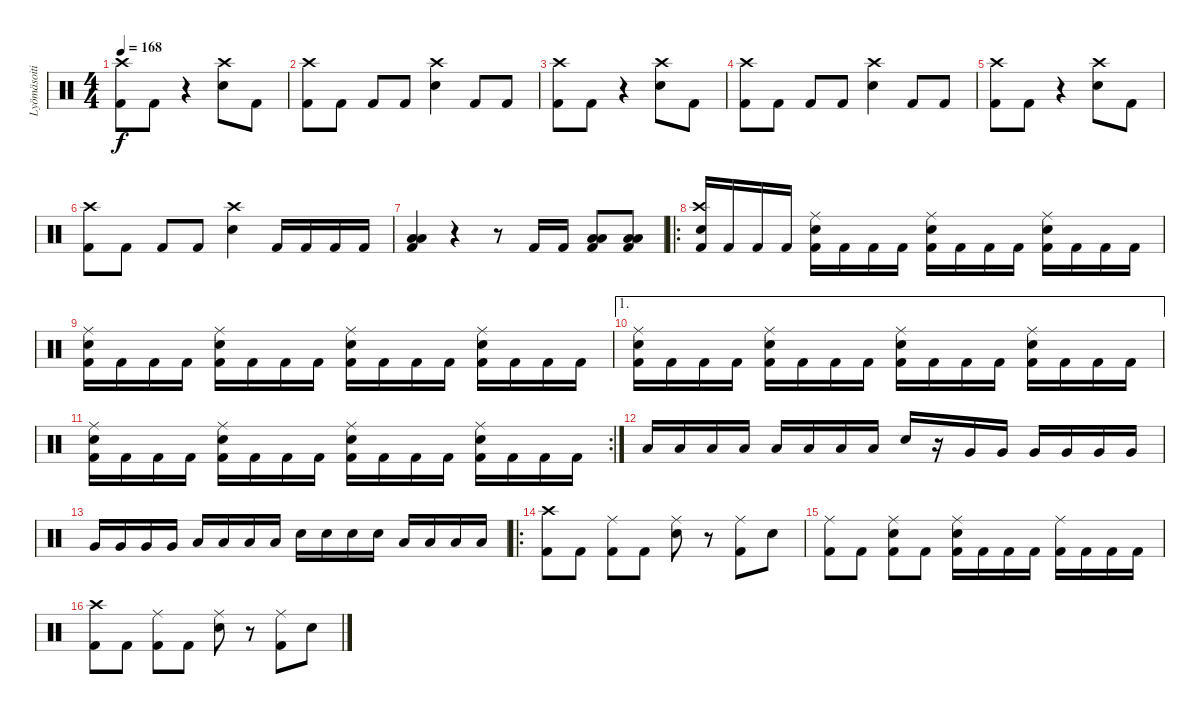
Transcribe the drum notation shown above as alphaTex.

\track ("Lyömäsoitin" "Lyömäsoiti") {instrument percussion}
\staff {score}
\articulation defaults
\ts (4 4)
\tempo 168
\clef neutral
\ks c
("Kick (hit) 2" "Crash high (hit)").8{dy f} "Kick (hit) 2".8 r.4 ("Electric Snare (hit)" "Crash high (hit)").8 "Kick (hit) 2".8 |
("Kick (hit) 2" "Crash high (hit)").8 "Kick (hit) 2".8 "Kick (hit) 2".8 "Kick (hit) 2".8 ("Electric Snare (hit)" "Crash high (hit)").4 "Kick (hit) 2".8 "Kick (hit) 2".8 |
("Kick (hit) 2" "Crash high (hit)").8 "Kick (hit) 2".8 r.4 ("Electric Snare (hit)" "Crash high (hit)").8 "Kick (hit) 2".8 |
("Kick (hit) 2" "Crash high (hit)").8 "Kick (hit) 2".8 "Kick (hit) 2".8 "Kick (hit) 2".8 ("Electric Snare (hit)" "Crash high (hit)").4 "Kick (hit) 2".8 "Kick (hit) 2".8 |
("Kick (hit) 2" "Crash high (hit)").8 "Kick (hit) 2".8 r.4 ("Electric Snare (hit)" "Crash high (hit)").8 "Kick (hit) 2".8 |
("Kick (hit) 2" "Crash high (hit)").8 "Kick (hit) 2".8 "Kick (hit) 2".8 "Kick (hit) 2".8 ("Electric Snare (hit)" "Crash high (hit)").4 "Kick (hit) 2".16 "Kick (hit) 2".16 "Kick (hit) 2".16 "Kick (hit) 2".16 |
("Kick (hit) 2" "Low Floor Tom (hit)" "Low Tom (hit)").4 r.4 r.8 "Kick (hit) 2".16 "Kick (hit) 2".16 ("Kick (hit) 2" "Low Floor Tom (hit)" "Low Tom (hit)").8 ("Kick (hit) 2" "Low Floor Tom (hit)" "Low Tom (hit)").8 |
\ro
("Kick (hit) 2" "Electric Snare (hit)" "Crash high (hit)").16 "Kick (hit) 2".16 "Kick (hit) 2".16 "Kick (hit) 2".16 ("Kick (hit) 2" "Electric Snare (hit)" "Ride (middle)").16 "Kick (hit) 2".16 "Kick (hit) 2".16 "Kick (hit) 2".16 ("Kick (hit) 2" "Electric Snare (hit)" "Ride (middle)").16 "Kick (hit) 2".16 "Kick (hit) 2".16 "Kick (hit) 2".16 ("Kick (hit) 2" "Electric Snare (hit)" "Ride (middle)").16 "Kick (hit) 2".16 "Kick (hit) 2".16 "Kick (hit) 2".16 |
("Kick (hit) 2" "Electric Snare (hit)" "Ride (middle)").16 "Kick (hit) 2".16 "Kick (hit) 2".16 "Kick (hit) 2".16 ("Kick (hit) 2" "Electric Snare (hit)" "Ride (middle)").16 "Kick (hit) 2".16 "Kick (hit) 2".16 "Kick (hit) 2".16 ("Kick (hit) 2" "Electric Snare (hit)" "Ride (middle)").16 "Kick (hit) 2".16 "Kick (hit) 2".16 "Kick (hit) 2".16 ("Kick (hit) 2" "Electric Snare (hit)" "Ride (middle)").16 "Kick (hit) 2".16 "Kick (hit) 2".16 "Kick (hit) 2".16 |
\ae 1
("Kick (hit) 2" "Electric Snare (hit)" "Ride (middle)").16 "Kick (hit) 2".16 "Kick (hit) 2".16 "Kick (hit) 2".16 ("Kick (hit) 2" "Electric Snare (hit)" "Ride (middle)").16 "Kick (hit) 2".16 "Kick (hit) 2".16 "Kick (hit) 2".16 ("Kick (hit) 2" "Electric Snare (hit)" "Ride (middle)").16 "Kick (hit) 2".16 "Kick (hit) 2".16 "Kick (hit) 2".16 ("Kick (hit) 2" "Electric Snare (hit)" "Ride (middle)").16 "Kick (hit) 2".16 "Kick (hit) 2".16 "Kick (hit) 2".16 |
\rc 2
("Kick (hit) 2" "Electric Snare (hit)" "Ride (middle)").16 "Kick (hit) 2".16 "Kick (hit) 2".16 "Kick (hit) 2".16 ("Kick (hit) 2" "Electric Snare (hit)" "Ride (middle)").16 "Kick (hit) 2".16 "Kick (hit) 2".16 "Kick (hit) 2".16 ("Kick (hit) 2" "Electric Snare (hit)" "Ride (middle)").16 "Kick (hit) 2".16 "Kick (hit) 2".16 "Kick (hit) 2".16 ("Kick (hit) 2" "Electric Snare (hit)" "Ride (middle)").16 "Kick (hit) 2".16 "Kick (hit) 2".16 "Kick (hit) 2".16 |
"Low Tom (hit)".16 "Low Tom (hit)".16 "Low Tom (hit)".16 "Low Tom (hit)".16 "Low Tom (hit)".16 "Low Tom (hit)".16 "Low Tom (hit)".16 "Low Tom (hit)".16 "Electric Snare (hit)".16 r.16 "Very Low Tom (hit)".16 "Very Low Tom (hit)".16 "Very Low Tom (hit)".16 "Very Low Tom (hit)".16 "Very Low Tom (hit)".16 "Very Low Tom (hit)".16 |
"Very Low Tom (hit)".16 "Very Low Tom (hit)".16 "Very Low Tom (hit)".16 "Very Low Tom (hit)".16 "Low Floor Tom (hit)".16 "Low Floor Tom (hit)".16 "Low Floor Tom (hit)".16 "Low Floor Tom (hit)".16 "Electric Snare (hit)".16 "Electric Snare (hit)".16 "Electric Snare (hit)".16 "Electric Snare (hit)".16 "Low Floor Tom (hit)".16 "Low Floor Tom (hit)".16 "Low Floor Tom (hit)".16 "Low Floor Tom (hit)".16 |
\ro
("Kick (hit) 2" "Crash high (hit)").8 "Kick (hit) 2".8 ("Kick (hit) 2" "Ride (middle)").8 "Kick (hit) 2".8 ("Electric Snare (hit)" "Ride (middle)").8 r.8 ("Kick (hit) 2" "Ride (middle)").8 "Electric Snare (hit)".8 |
("Kick (hit) 2" "Ride (middle)").8 "Kick (hit) 2".8 ("Kick (hit) 2" "Electric Snare (hit)" "Ride (middle)").8 "Kick (hit) 2".8 ("Kick (hit) 2" "Electric Snare (hit)" "Ride (middle)").16 "Kick (hit) 2".16 "Kick (hit) 2".16 "Kick (hit) 2".16 ("Kick (hit) 2" "Ride (middle)").16 "Kick (hit) 2".16 "Kick (hit) 2".16 "Kick (hit) 2".16 |
("Kick (hit) 2" "Crash high (hit)").8 "Kick (hit) 2".8 ("Kick (hit) 2" "Ride (middle)").8 "Kick (hit) 2".8 ("Electric Snare (hit)" "Ride (middle)").8 r.8 ("Kick (hit) 2" "Ride (middle)").8 "Electric Snare (hit)".8
